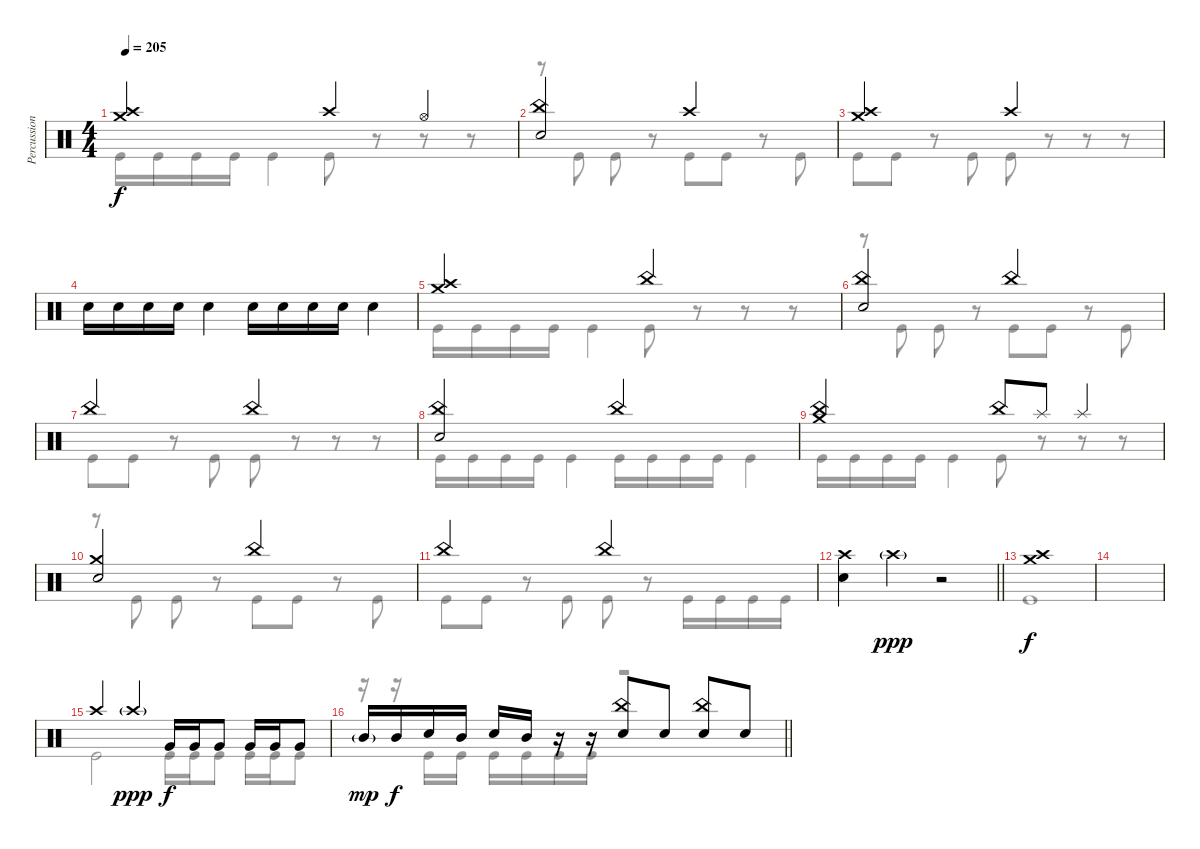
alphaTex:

\track ("Percussion" "Percussion") {instrument percussion}
\staff {score}
\articulation defaults
\voice
\ts (4 4)
\tempo 205
\clef neutral
\ks c
("Crash medium (hit)" "Crash high (hit)").2{dy f} "Crash high (hit)".4 "Hi-Hat (open)".4 |
("China (hit)" "Electric Snare (hit)").2 "Crash high (hit)".2 |
("Crash medium (hit)" "Crash high (hit)").2 "Crash high (hit)".2 |
"Electric Snare (hit)".16 "Electric Snare (hit)".16 "Electric Snare (hit)".16 "Electric Snare (hit)".16 "Electric Snare (hit)".4 "Electric Snare (hit)".16 "Electric Snare (hit)".16 "Electric Snare (hit)".16 "Electric Snare (hit)".16 "Electric Snare (hit)".4 |
("Crash medium (hit)" "Crash high (hit)").2 "China (hit)".2 |
("China (hit)" "Electric Snare (hit)").2 "China (hit)".2 |
"China (hit)".2 "China (hit)".2 |
("China (hit)" "Electric Snare (hit)").2 "China (hit)".2 |
("Crash medium (hit)" "China (hit)").2 "China (hit)".8 "Splash (hit)".8 "Splash (hit)".4 |
("Crash medium (hit)" "Electric Snare (hit)").2 "China (hit)".2 |
"China (hit)".2 "China (hit)".2 |
\barLineRight lightlight
("Crash high (hit)" "Electric Snare (hit)").4 "Crash high (hit)"{g}.4{dy ppp} r.2 |
\section ("" "")
("Crash medium (hit)" "Crash high (hit)").1{dy f} |
|
"Crash high (hit)".4 "Crash high (hit)"{g}.4{dy ppp} "Very Low Tom (hit)".16{dy f} "Very Low Tom (hit)".16 "Very Low Tom (hit)".8 "Very Low Tom (hit)".16 "Very Low Tom (hit)".16 "Very Low Tom (hit)".8 |
\barLineRight lightlight "Mid Tom (hit)"{g}.16{dy mp} "Mid Tom (hit)".16{dy f} "Electric Snare (hit)".16 "Mid Tom (hit)".16 "Electric Snare (hit)".16 "Mid Tom (hit)".16
r.16 r.16 ("China (hit)" "Electric Snare (hit)").8 "Electric Snare (hit)".8 ("China (hit)" "Electric Snare (hit)").8 "Electric Snare (hit)".8
\voice
\clef neutral
\ottava regular
\simile none
\ks c "Kick (hit)".16{dy f} "Kick (hit)".16 "Kick (hit)".16 "Kick (hit)".16 "Kick (hit)".4 "Kick (hit)".8
r.8 r.8 r.8 |
r.8 "Kick (hit)".8 "Kick (hit)".8 r.8 "Kick (hit)".8 "Kick (hit)".8 r.8 "Kick (hit)".8 |
"Kick (hit)".8 "Kick (hit)".8 r.8 "Kick (hit)".8 "Kick (hit)".8 r.8 r.8 r.8 |
|
"Kick (hit)".16 "Kick (hit)".16 "Kick (hit)".16 "Kick (hit)".16 "Kick (hit)".4 "Kick (hit)".8 r.8 r.8 r.8 |
r.8 "Kick (hit)".8 "Kick (hit)".8 r.8 "Kick (hit)".8 "Kick (hit)".8 r.8 "Kick (hit)".8 |
"Kick (hit)".8 "Kick (hit)".8 r.8 "Kick (hit)".8 "Kick (hit)".8 r.8 r.8 r.8 |
"Kick (hit)".16 "Kick (hit)".16 "Kick (hit)".16 "Kick (hit)".16 "Kick (hit)".4 "Kick (hit)".16 "Kick (hit)".16 "Kick (hit)".16 "Kick (hit)".16 "Kick (hit)".4 |
"Kick (hit)".16 "Kick (hit)".16 "Kick (hit)".16 "Kick (hit)".16 "Kick (hit)".4 "Kick (hit)".8 r.8 r.8 r.8 |
r.8 "Kick (hit)".8 "Kick (hit)".8 r.8 "Kick (hit)".8 "Kick (hit)".8 r.8 "Kick (hit)".8 |
"Kick (hit)".8 "Kick (hit)".8 r.8 "Kick (hit)".8 "Kick (hit)".8 r.8 "Kick (hit)".16 "Kick (hit)".16 "Kick (hit)".16 "Kick (hit)".16 |
\barLineRight lightlight
|
"Kick (hit)".1 |
|
"Kick (hit)".2 "Kick (hit)".16 "Kick (hit)".16 "Kick (hit)".8 "Kick (hit)".16 "Kick (hit)".16 "Kick (hit)".8 |
\barLineRight lightlight
r.16 r.16 "Kick (hit)".16 "Kick (hit)".16 "Kick (hit)".16 "Kick (hit)".16 "Kick (hit)".16 "Kick (hit)".16 r.2
